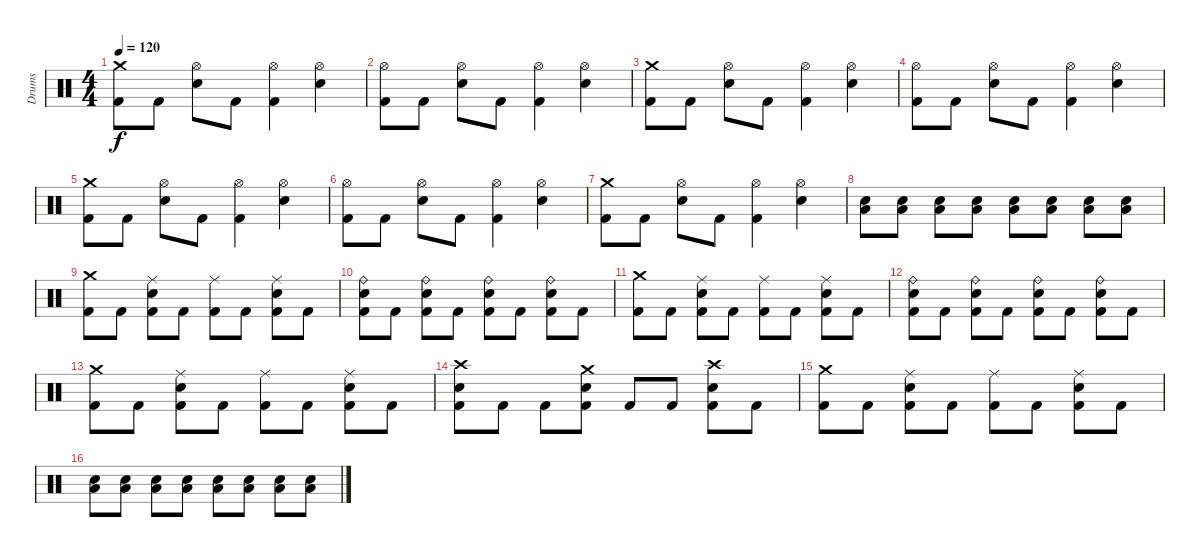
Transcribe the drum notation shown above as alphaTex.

\track ("Drums" "Drums") {instrument percussion}
\staff {score}
\articulation defaults
\ts (4 4)
\tempo 120
\clef neutral
\ks c
("Crash medium (hit)" "Kick (hit) 2").8{dy f} "Kick (hit) 2".8 ("Hi-Hat (open)" "Snare (hit) 2").8 "Kick (hit) 2".8 ("Hi-Hat (open)" "Kick (hit) 2").4 ("Hi-Hat (open)" "Snare (hit) 2").4 |
("Hi-Hat (open)" "Kick (hit) 2").8 "Kick (hit) 2".8 ("Hi-Hat (open)" "Snare (hit) 2").8 "Kick (hit) 2".8 ("Hi-Hat (open)" "Kick (hit) 2").4 ("Hi-Hat (open)" "Snare (hit) 2").4 |
("Crash medium (hit)" "Kick (hit) 2").8 "Kick (hit) 2".8 ("Hi-Hat (open)" "Snare (hit) 2").8 "Kick (hit) 2".8 ("Hi-Hat (open)" "Kick (hit) 2").4 ("Hi-Hat (open)" "Snare (hit) 2").4 |
("Hi-Hat (open)" "Kick (hit) 2").8 "Kick (hit) 2".8 ("Hi-Hat (open)" "Snare (hit) 2").8 "Kick (hit) 2".8 ("Hi-Hat (open)" "Kick (hit) 2").4 ("Hi-Hat (open)" "Snare (hit) 2").4 |
("Crash medium (hit)" "Kick (hit) 2").8 "Kick (hit) 2".8 ("Hi-Hat (open)" "Snare (hit) 2").8 "Kick (hit) 2".8 ("Hi-Hat (open)" "Kick (hit) 2").4 ("Hi-Hat (open)" "Snare (hit) 2").4 |
("Hi-Hat (open)" "Kick (hit) 2").8 "Kick (hit) 2".8 ("Hi-Hat (open)" "Snare (hit) 2").8 "Kick (hit) 2".8 ("Hi-Hat (open)" "Kick (hit) 2").4 ("Hi-Hat (open)" "Snare (hit) 2").4 |
("Crash medium (hit)" "Kick (hit) 2").8 "Kick (hit) 2".8 ("Hi-Hat (open)" "Snare (hit) 2").8 "Kick (hit) 2".8 ("Hi-Hat (open)" "Kick (hit) 2").4 ("Hi-Hat (open)" "Snare (hit) 2").4 |
("Snare (hit) 2" "Low Floor Tom (hit)").8 ("Snare (hit) 2" "Low Floor Tom (hit)").8 ("Snare (hit) 2" "Low Floor Tom (hit)").8 ("Snare (hit) 2" "Low Floor Tom (hit)").8 ("Snare (hit) 2" "Low Floor Tom (hit)").8 ("Snare (hit) 2" "Low Floor Tom (hit)").8 ("Snare (hit) 2" "Low Floor Tom (hit)").8 ("Snare (hit) 2" "Low Floor Tom (hit)").8 |
("Crash medium (hit)" "Kick (hit) 2").8 "Kick (hit) 2".8 ("Ride (middle)" "Snare (hit) 2" "Kick (hit) 2").8 "Kick (hit) 2".8 ("Ride (middle)" "Kick (hit) 2").8 "Kick (hit) 2".8 ("Ride (middle)" "Snare (hit) 2" "Kick (hit) 2").8 "Kick (hit) 2".8 |
("Ride (bell)" "Snare (hit) 2" "Kick (hit) 2").8 "Kick (hit) 2".8 ("Ride (bell)" "Snare (hit) 2" "Kick (hit) 2").8 "Kick (hit) 2".8 ("Ride (bell)" "Snare (hit) 2" "Kick (hit) 2").8 "Kick (hit) 2".8 ("Ride (bell)" "Snare (hit) 2" "Kick (hit) 2").8 "Kick (hit) 2".8 |
("Crash medium (hit)" "Kick (hit) 2").8 "Kick (hit) 2".8 ("Ride (middle)" "Snare (hit) 2" "Kick (hit) 2").8 "Kick (hit) 2".8 ("Ride (middle)" "Kick (hit) 2").8 "Kick (hit) 2".8 ("Ride (middle)" "Snare (hit) 2" "Kick (hit) 2").8 "Kick (hit) 2".8 |
("Ride (bell)" "Snare (hit) 2" "Kick (hit) 2").8 "Kick (hit) 2".8 ("Ride (bell)" "Snare (hit) 2" "Kick (hit) 2").8 "Kick (hit) 2".8 ("Ride (bell)" "Snare (hit) 2" "Kick (hit) 2").8 "Kick (hit) 2".8 ("Ride (bell)" "Snare (hit) 2" "Kick (hit) 2").8 "Kick (hit) 2".8 |
("Crash medium (hit)" "Kick (hit) 2").8 "Kick (hit) 2".8 ("Ride (middle)" "Snare (hit) 2" "Kick (hit) 2").8 "Kick (hit) 2".8 ("Ride (middle)" "Kick (hit) 2").8 "Kick (hit) 2".8 ("Ride (middle)" "Snare (hit) 2" "Kick (hit) 2").8 "Kick (hit) 2".8 |
("Crash high (hit)" "Snare (hit) 2" "Kick (hit) 2").8 "Kick (hit) 2".8 "Kick (hit) 2".8 ("Crash medium (hit)" "Snare (hit) 2" "Kick (hit) 2").8 "Kick (hit) 2".8 "Kick (hit) 2".8 ("Crash high (hit)" "Snare (hit) 2" "Kick (hit) 2").8 "Kick (hit) 2".8 |
("Crash medium (hit)" "Kick (hit) 2").8 "Kick (hit) 2".8 ("Ride (middle)" "Snare (hit) 2" "Kick (hit) 2").8 "Kick (hit) 2".8 ("Ride (middle)" "Kick (hit) 2").8 "Kick (hit) 2".8 ("Ride (middle)" "Snare (hit) 2" "Kick (hit) 2").8 "Kick (hit) 2".8 |
("Snare (hit) 2" "Low Floor Tom (hit)").8 ("Snare (hit) 2" "Low Floor Tom (hit)").8 ("Snare (hit) 2" "Low Floor Tom (hit)").8 ("Snare (hit) 2" "Low Floor Tom (hit)").8 ("Snare (hit) 2" "Low Floor Tom (hit)").8 ("Snare (hit) 2" "Low Floor Tom (hit)").8 ("Snare (hit) 2" "Low Floor Tom (hit)").8 ("Snare (hit) 2" "Low Floor Tom (hit)").8
